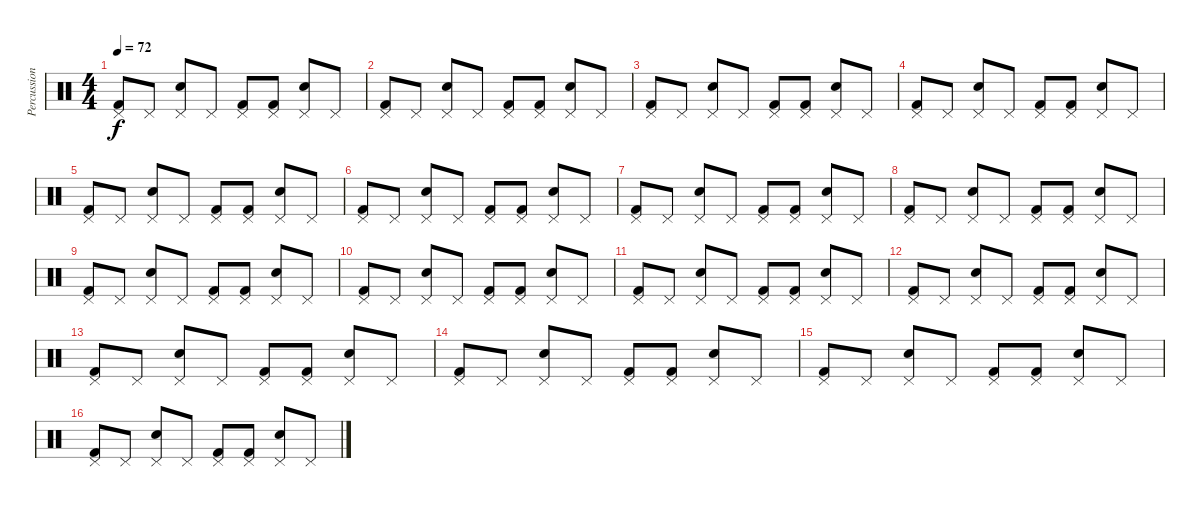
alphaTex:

\track ("Percussion" "Percussion") {instrument percussion}
\staff {score}
\articulation defaults
\ts (4 4)
\tempo 72
\clef neutral
\ks c
("Pedal Hi-Hat (hit)" "Kick (hit) 2").8{dy f} "Pedal Hi-Hat (hit)".8 ("Pedal Hi-Hat (hit)" "Snare (hit) 2").8 "Pedal Hi-Hat (hit)".8 ("Pedal Hi-Hat (hit)" "Kick (hit) 2").8 ("Pedal Hi-Hat (hit)" "Kick (hit) 2").8 ("Pedal Hi-Hat (hit)" "Snare (hit) 2").8 "Pedal Hi-Hat (hit)".8 |
("Pedal Hi-Hat (hit)" "Kick (hit) 2").8 "Pedal Hi-Hat (hit)".8 ("Pedal Hi-Hat (hit)" "Snare (hit) 2").8 "Pedal Hi-Hat (hit)".8 ("Pedal Hi-Hat (hit)" "Kick (hit) 2").8 ("Pedal Hi-Hat (hit)" "Kick (hit) 2").8 ("Pedal Hi-Hat (hit)" "Snare (hit) 2").8 "Pedal Hi-Hat (hit)".8 |
("Pedal Hi-Hat (hit)" "Kick (hit) 2").8 "Pedal Hi-Hat (hit)".8 ("Pedal Hi-Hat (hit)" "Snare (hit) 2").8 "Pedal Hi-Hat (hit)".8 ("Pedal Hi-Hat (hit)" "Kick (hit) 2").8 ("Pedal Hi-Hat (hit)" "Kick (hit) 2").8 ("Pedal Hi-Hat (hit)" "Snare (hit) 2").8 "Pedal Hi-Hat (hit)".8 |
("Pedal Hi-Hat (hit)" "Kick (hit) 2").8 "Pedal Hi-Hat (hit)".8 ("Pedal Hi-Hat (hit)" "Snare (hit) 2").8 "Pedal Hi-Hat (hit)".8 ("Pedal Hi-Hat (hit)" "Kick (hit) 2").8 ("Pedal Hi-Hat (hit)" "Kick (hit) 2").8 ("Pedal Hi-Hat (hit)" "Snare (hit) 2").8 "Pedal Hi-Hat (hit)".8 |
("Pedal Hi-Hat (hit)" "Kick (hit) 2").8 "Pedal Hi-Hat (hit)".8 ("Pedal Hi-Hat (hit)" "Snare (hit) 2").8 "Pedal Hi-Hat (hit)".8 ("Pedal Hi-Hat (hit)" "Kick (hit) 2").8 ("Pedal Hi-Hat (hit)" "Kick (hit) 2").8 ("Pedal Hi-Hat (hit)" "Snare (hit) 2").8 "Pedal Hi-Hat (hit)".8 |
("Pedal Hi-Hat (hit)" "Kick (hit) 2").8 "Pedal Hi-Hat (hit)".8 ("Pedal Hi-Hat (hit)" "Snare (hit) 2").8 "Pedal Hi-Hat (hit)".8 ("Pedal Hi-Hat (hit)" "Kick (hit) 2").8 ("Pedal Hi-Hat (hit)" "Kick (hit) 2").8 ("Pedal Hi-Hat (hit)" "Snare (hit) 2").8 "Pedal Hi-Hat (hit)".8 |
("Pedal Hi-Hat (hit)" "Kick (hit) 2").8 "Pedal Hi-Hat (hit)".8 ("Pedal Hi-Hat (hit)" "Snare (hit) 2").8 "Pedal Hi-Hat (hit)".8 ("Pedal Hi-Hat (hit)" "Kick (hit) 2").8 ("Pedal Hi-Hat (hit)" "Kick (hit) 2").8 ("Pedal Hi-Hat (hit)" "Snare (hit) 2").8 "Pedal Hi-Hat (hit)".8 |
("Pedal Hi-Hat (hit)" "Kick (hit) 2").8 "Pedal Hi-Hat (hit)".8 ("Pedal Hi-Hat (hit)" "Snare (hit) 2").8 "Pedal Hi-Hat (hit)".8 ("Pedal Hi-Hat (hit)" "Kick (hit) 2").8 ("Pedal Hi-Hat (hit)" "Kick (hit) 2").8 ("Pedal Hi-Hat (hit)" "Snare (hit) 2").8 "Pedal Hi-Hat (hit)".8 |
("Pedal Hi-Hat (hit)" "Kick (hit) 2").8 "Pedal Hi-Hat (hit)".8 ("Pedal Hi-Hat (hit)" "Snare (hit) 2").8 "Pedal Hi-Hat (hit)".8 ("Pedal Hi-Hat (hit)" "Kick (hit) 2").8 ("Pedal Hi-Hat (hit)" "Kick (hit) 2").8 ("Pedal Hi-Hat (hit)" "Snare (hit) 2").8 "Pedal Hi-Hat (hit)".8 |
("Pedal Hi-Hat (hit)" "Kick (hit) 2").8 "Pedal Hi-Hat (hit)".8 ("Pedal Hi-Hat (hit)" "Snare (hit) 2").8 "Pedal Hi-Hat (hit)".8 ("Pedal Hi-Hat (hit)" "Kick (hit) 2").8 ("Pedal Hi-Hat (hit)" "Kick (hit) 2").8 ("Pedal Hi-Hat (hit)" "Snare (hit) 2").8 "Pedal Hi-Hat (hit)".8 |
("Pedal Hi-Hat (hit)" "Kick (hit) 2").8 "Pedal Hi-Hat (hit)".8 ("Pedal Hi-Hat (hit)" "Snare (hit) 2").8 "Pedal Hi-Hat (hit)".8 ("Pedal Hi-Hat (hit)" "Kick (hit) 2").8 ("Pedal Hi-Hat (hit)" "Kick (hit) 2").8 ("Pedal Hi-Hat (hit)" "Snare (hit) 2").8 "Pedal Hi-Hat (hit)".8 |
("Pedal Hi-Hat (hit)" "Kick (hit) 2").8 "Pedal Hi-Hat (hit)".8 ("Pedal Hi-Hat (hit)" "Snare (hit) 2").8 "Pedal Hi-Hat (hit)".8 ("Pedal Hi-Hat (hit)" "Kick (hit) 2").8 ("Pedal Hi-Hat (hit)" "Kick (hit) 2").8 ("Pedal Hi-Hat (hit)" "Snare (hit) 2").8 "Pedal Hi-Hat (hit)".8 |
("Pedal Hi-Hat (hit)" "Kick (hit) 2").8 "Pedal Hi-Hat (hit)".8 ("Pedal Hi-Hat (hit)" "Snare (hit) 2").8 "Pedal Hi-Hat (hit)".8 ("Pedal Hi-Hat (hit)" "Kick (hit) 2").8 ("Pedal Hi-Hat (hit)" "Kick (hit) 2").8 ("Pedal Hi-Hat (hit)" "Snare (hit) 2").8 "Pedal Hi-Hat (hit)".8 |
("Pedal Hi-Hat (hit)" "Kick (hit) 2").8 "Pedal Hi-Hat (hit)".8 ("Pedal Hi-Hat (hit)" "Snare (hit) 2").8 "Pedal Hi-Hat (hit)".8 ("Pedal Hi-Hat (hit)" "Kick (hit) 2").8 ("Pedal Hi-Hat (hit)" "Kick (hit) 2").8 ("Pedal Hi-Hat (hit)" "Snare (hit) 2").8 "Pedal Hi-Hat (hit)".8 |
("Pedal Hi-Hat (hit)" "Kick (hit) 2").8 "Pedal Hi-Hat (hit)".8 ("Pedal Hi-Hat (hit)" "Snare (hit) 2").8 "Pedal Hi-Hat (hit)".8 ("Pedal Hi-Hat (hit)" "Kick (hit) 2").8 ("Pedal Hi-Hat (hit)" "Kick (hit) 2").8 ("Pedal Hi-Hat (hit)" "Snare (hit) 2").8 "Pedal Hi-Hat (hit)".8 |
("Pedal Hi-Hat (hit)" "Kick (hit) 2").8 "Pedal Hi-Hat (hit)".8 ("Pedal Hi-Hat (hit)" "Snare (hit) 2").8 "Pedal Hi-Hat (hit)".8 ("Pedal Hi-Hat (hit)" "Kick (hit) 2").8 ("Pedal Hi-Hat (hit)" "Kick (hit) 2").8 ("Pedal Hi-Hat (hit)" "Snare (hit) 2").8 "Pedal Hi-Hat (hit)".8
